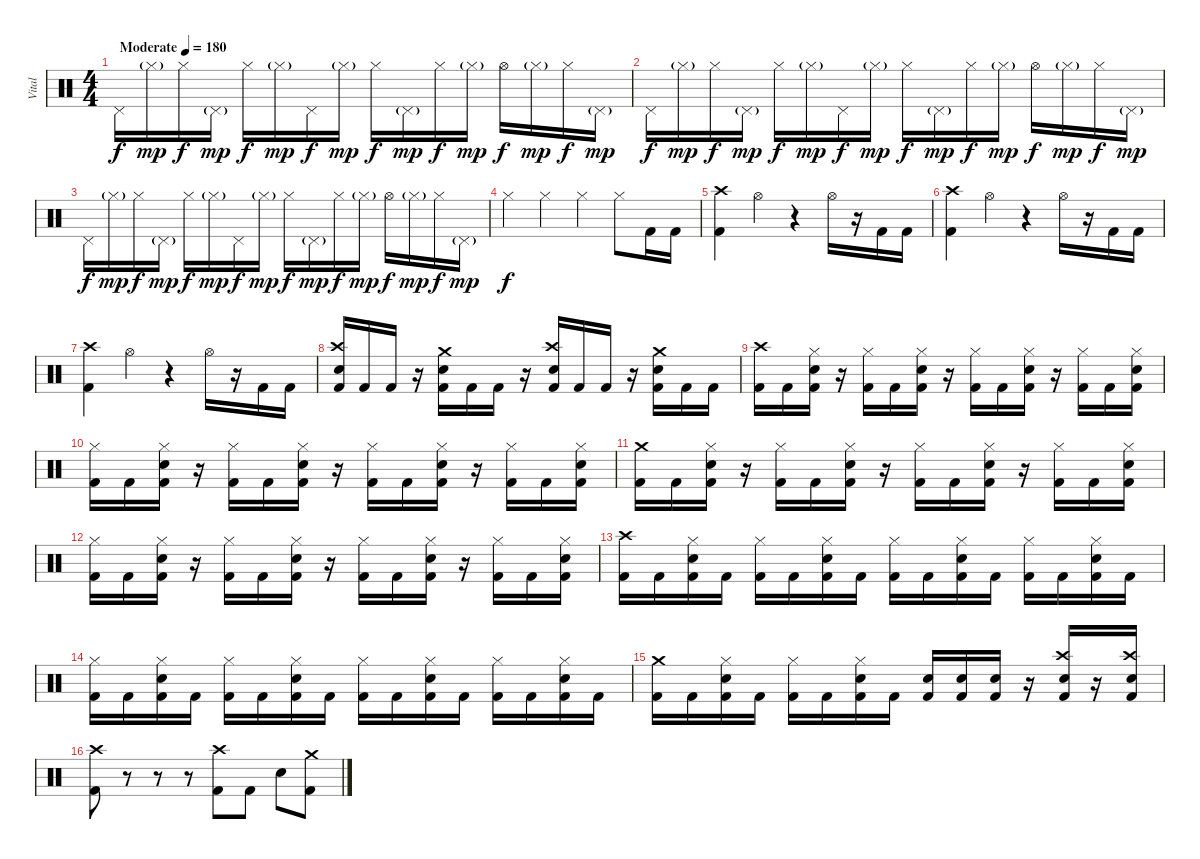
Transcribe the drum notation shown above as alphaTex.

\track ("Vital" "Vital") {instrument percussion}
\staff {score}
\articulation defaults
\ts (4 4)
\tempo (180 "Moderate")
\clef neutral
\ks c "Pedal Hi-Hat (hit)".16{dy f} "Hi-Hat (closed)"{g}.16{dy mp} "Hi-Hat (closed)".16{dy f} "Pedal Hi-Hat (hit)"{g}.16{dy mp} "Hi-Hat (closed)".16{dy f} "Hi-Hat (closed)"{g}.16{dy mp} "Pedal Hi-Hat (hit)".16{dy f} "Hi-Hat (closed)"{g}.16{dy mp} "Hi-Hat (closed)".16{dy f} "Pedal Hi-Hat (hit)"{g}.16{dy mp} "Hi-Hat (closed)".16{dy f} "Hi-Hat (closed)"{g}.16{dy mp} "Hi-Hat (open)".16{dy f} "Hi-Hat (closed)"{g}.16{dy mp} "Hi-Hat (closed)".16{dy f} "Pedal Hi-Hat (hit)"{g}.16{dy mp}
|
"Pedal Hi-Hat (hit)".16{dy f} "Hi-Hat (closed)"{g}.16{dy mp} "Hi-Hat (closed)".16{dy f} "Pedal Hi-Hat (hit)"{g}.16{dy mp} "Hi-Hat (closed)".16{dy f} "Hi-Hat (closed)"{g}.16{dy mp} "Pedal Hi-Hat (hit)".16{dy f} "Hi-Hat (closed)"{g}.16{dy mp} "Hi-Hat (closed)".16{dy f} "Pedal Hi-Hat (hit)"{g}.16{dy mp} "Hi-Hat (closed)".16{dy f} "Hi-Hat (closed)"{g}.16{dy mp} "Hi-Hat (open)".16{dy f} "Hi-Hat (closed)"{g}.16{dy mp} "Hi-Hat (closed)".16{dy f} "Pedal Hi-Hat (hit)"{g}.16{dy mp} |
"Pedal Hi-Hat (hit)".16{dy f} "Hi-Hat (closed)"{g}.16{dy mp} "Hi-Hat (closed)".16{dy f} "Pedal Hi-Hat (hit)"{g}.16{dy mp} "Hi-Hat (closed)".16{dy f} "Hi-Hat (closed)"{g}.16{dy mp} "Pedal Hi-Hat (hit)".16{dy f} "Hi-Hat (closed)"{g}.16{dy mp} "Hi-Hat (closed)".16{dy f} "Pedal Hi-Hat (hit)"{g}.16{dy mp} "Hi-Hat (closed)".16{dy f} "Hi-Hat (closed)"{g}.16{dy mp} "Hi-Hat (open)".16{dy f} "Hi-Hat (closed)"{g}.16{dy mp} "Hi-Hat (closed)".16{dy f} "Pedal Hi-Hat (hit)"{g}.16{dy mp} |
"Hi-Hat (closed)".4{dy f} "Hi-Hat (closed)".4 "Hi-Hat (closed)".4 "Hi-Hat (closed)".8 "Kick (hit) 2".16 "Kick (hit) 2".16 |
("Crash high (hit)" "Kick (hit) 2").4 "Hi-Hat (open)".4 r.4 "Hi-Hat (open)".16 r.16 "Kick (hit) 2".16 "Kick (hit) 2".16 |
("Crash high (hit)" "Kick (hit) 2").4 "Hi-Hat (open)".4 r.4 "Hi-Hat (open)".16 r.16 "Kick (hit) 2".16 "Kick (hit) 2".16 |
("Crash high (hit)" "Kick (hit) 2").4 "Hi-Hat (open)".4 r.4 "Hi-Hat (open)".16 r.16 "Kick (hit) 2".16 "Kick (hit) 2".16 |
("Crash high (hit)" "Snare (hit) 2" "Kick (hit) 2").16 "Kick (hit) 2".16 "Kick (hit) 2".16 r.16 ("Crash medium (hit)" "Snare (hit) 2" "Kick (hit) 2").16 "Kick (hit) 2".16 "Kick (hit) 2".16 r.16 ("Crash high (hit)" "Snare (hit) 2" "Kick (hit) 2").16 "Kick (hit) 2".16 "Kick (hit) 2".16 r.16 ("Crash medium (hit)" "Snare (hit) 2" "Kick (hit) 2").16 "Kick (hit) 2".16 "Kick (hit) 2".16 |
("Crash high (hit)" "Kick (hit) 2").16 "Kick (hit) 2".16 ("Hi-Hat (closed)" "Snare (hit) 2" "Kick (hit) 2").16 r.16 ("Hi-Hat (closed)" "Kick (hit) 2").16 "Kick (hit) 2".16 ("Hi-Hat (closed)" "Snare (hit) 2" "Kick (hit) 2").16 r.16 ("Hi-Hat (closed)" "Kick (hit) 2").16 "Kick (hit) 2".16 ("Hi-Hat (closed)" "Snare (hit) 2" "Kick (hit) 2").16 r.16 ("Hi-Hat (closed)" "Kick (hit) 2").16 "Kick (hit) 2".16 ("Hi-Hat (closed)" "Snare (hit) 2" "Kick (hit) 2").16 |
("Hi-Hat (closed)" "Kick (hit) 2").16 "Kick (hit) 2".16 ("Hi-Hat (closed)" "Snare (hit) 2" "Kick (hit) 2").16 r.16 ("Hi-Hat (closed)" "Kick (hit) 2").16 "Kick (hit) 2".16 ("Hi-Hat (closed)" "Snare (hit) 2" "Kick (hit) 2").16 r.16 ("Hi-Hat (closed)" "Kick (hit) 2").16 "Kick (hit) 2".16 ("Hi-Hat (closed)" "Snare (hit) 2" "Kick (hit) 2").16 r.16 ("Hi-Hat (closed)" "Kick (hit) 2").16 "Kick (hit) 2".16 ("Hi-Hat (closed)" "Snare (hit) 2" "Kick (hit) 2").16 |
("Crash medium (hit)" "Kick (hit) 2").16 "Kick (hit) 2".16 ("Hi-Hat (closed)" "Snare (hit) 2" "Kick (hit) 2").16 r.16 ("Hi-Hat (closed)" "Kick (hit) 2").16 "Kick (hit) 2".16 ("Hi-Hat (closed)" "Snare (hit) 2" "Kick (hit) 2").16 r.16 ("Hi-Hat (closed)" "Kick (hit) 2").16 "Kick (hit) 2".16 ("Hi-Hat (closed)" "Snare (hit) 2" "Kick (hit) 2").16 r.16 ("Hi-Hat (closed)" "Kick (hit) 2").16 "Kick (hit) 2".16 ("Hi-Hat (closed)" "Snare (hit) 2" "Kick (hit) 2").16 |
("Hi-Hat (closed)" "Kick (hit) 2").16 "Kick (hit) 2".16 ("Hi-Hat (closed)" "Snare (hit) 2" "Kick (hit) 2").16 r.16 ("Hi-Hat (closed)" "Kick (hit) 2").16 "Kick (hit) 2".16 ("Hi-Hat (closed)" "Snare (hit) 2" "Kick (hit) 2").16 r.16 ("Hi-Hat (closed)" "Kick (hit) 2").16 "Kick (hit) 2".16 ("Hi-Hat (closed)" "Snare (hit) 2" "Kick (hit) 2").16 r.16 ("Hi-Hat (closed)" "Kick (hit) 2").16 "Kick (hit) 2".16 ("Hi-Hat (closed)" "Snare (hit) 2" "Kick (hit) 2").16 |
("Crash high (hit)" "Kick (hit) 2").16 "Kick (hit) 2".16 ("Hi-Hat (closed)" "Snare (hit) 2" "Kick (hit) 2").16 "Kick (hit) 2".16 ("Hi-Hat (closed)" "Kick (hit) 2").16 "Kick (hit) 2".16 ("Hi-Hat (closed)" "Snare (hit) 2" "Kick (hit) 2").16 "Kick (hit) 2".16 ("Hi-Hat (closed)" "Kick (hit) 2").16 "Kick (hit) 2".16 ("Hi-Hat (closed)" "Snare (hit) 2" "Kick (hit) 2").16 "Kick (hit) 2".16 ("Hi-Hat (closed)" "Kick (hit) 2").16 "Kick (hit) 2".16 ("Hi-Hat (closed)" "Snare (hit) 2" "Kick (hit) 2").16 "Kick (hit) 2".16 |
("Hi-Hat (closed)" "Kick (hit) 2").16 "Kick (hit) 2".16 ("Hi-Hat (closed)" "Snare (hit) 2" "Kick (hit) 2").16 "Kick (hit) 2".16 ("Hi-Hat (closed)" "Kick (hit) 2").16 "Kick (hit) 2".16 ("Hi-Hat (closed)" "Snare (hit) 2" "Kick (hit) 2").16 "Kick (hit) 2".16 ("Hi-Hat (closed)" "Kick (hit) 2").16 "Kick (hit) 2".16 ("Hi-Hat (closed)" "Snare (hit) 2" "Kick (hit) 2").16 "Kick (hit) 2".16 ("Hi-Hat (closed)" "Kick (hit) 2").16 "Kick (hit) 2".16 ("Hi-Hat (closed)" "Snare (hit) 2" "Kick (hit) 2").16 "Kick (hit) 2".16 |
("Crash medium (hit)" "Kick (hit) 2").16 "Kick (hit) 2".16 ("Hi-Hat (closed)" "Snare (hit) 2" "Kick (hit) 2").16 "Kick (hit) 2".16 ("Hi-Hat (closed)" "Kick (hit) 2").16 "Kick (hit) 2".16 ("Hi-Hat (closed)" "Snare (hit) 2" "Kick (hit) 2").16 "Kick (hit) 2".16 ("Snare (hit) 2" "Kick (hit) 2").16 ("Snare (hit) 2" "Kick (hit) 2").16 ("Snare (hit) 2" "Kick (hit) 2").16 r.16 ("Crash high (hit)" "Snare (hit) 2" "Kick (hit) 2").16 r.16 ("Crash high (hit)" "Snare (hit) 2" "Kick (hit) 2").16 |
("Crash high (hit)" "Kick (hit) 2").8 r.8 r.8 r.8 ("Crash high (hit)" "Kick (hit) 2").8 "Kick (hit) 2".8 "Snare (hit) 2".8 ("Crash medium (hit)" "Kick (hit) 2").8
